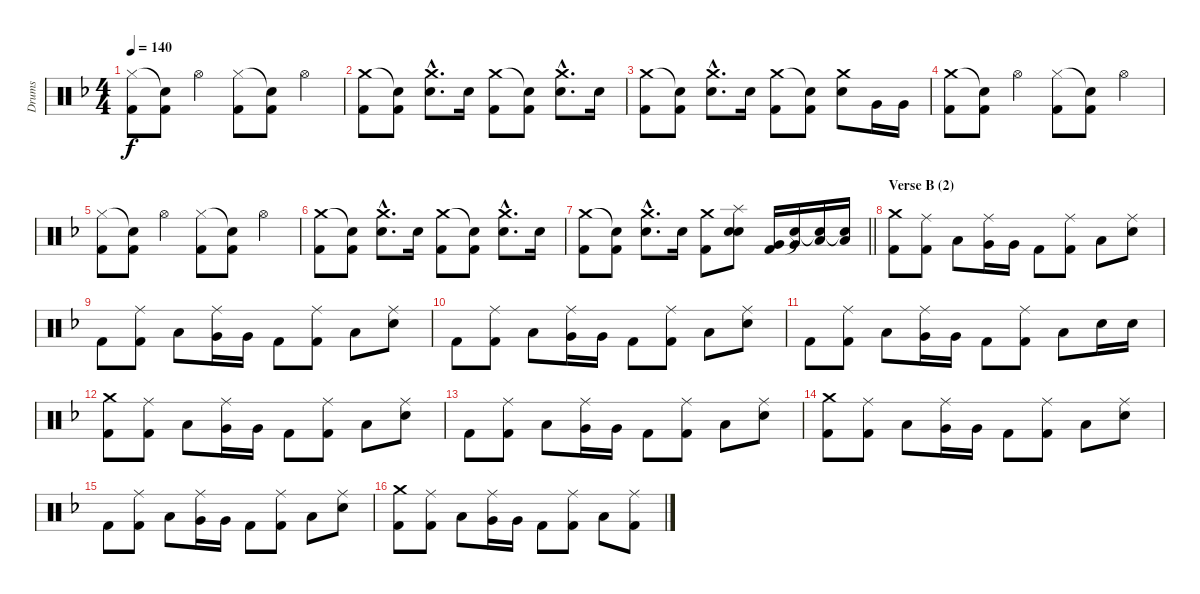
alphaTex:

\track ("Drums" "Drums") {instrument percussion}
\staff {score}
\articulation defaults
\ts (4 4)
\tempo 140
\clef neutral
\ks f
("Hi-Hat (closed)" "Kick (hit) 2").8{dy f} ("Snare (hit)"{t} "Kick (hit) 2").8 "Hi-Hat (open)".4 ("Hi-Hat (closed)" "Kick (hit) 2").8 ("Snare (hit)"{t} "Kick (hit) 2").8 "Hi-Hat (open)".4 |
("Crash medium (hit)" "Kick (hit) 2").8 ("Snare (hit)"{t} "Kick (hit) 2").8 ("Crash medium (hit)"{hac} "Electric Snare (hit)"{hac}).8{d} "Electric Snare (hit)".16 ("Crash medium (hit)" "Kick (hit) 2").8 ("Snare (hit)"{t} "Kick (hit) 2").8 ("Crash medium (hit)"{hac} "Electric Snare (hit)"{hac}).8{d} "Electric Snare (hit)".16 |
("Crash medium (hit)" "Kick (hit) 2").8 ("Snare (hit)"{t} "Kick (hit) 2").8 ("Crash medium (hit)"{hac} "Electric Snare (hit)"{hac}).8{d} "Electric Snare (hit)".16 ("Crash medium (hit)" "Kick (hit) 2").8 ("Snare (hit)"{t} "Kick (hit) 2").8 ("Crash medium (hit)" "Electric Snare (hit)").8 "Very Low Tom (hit)".16 "Very Low Tom (hit)".16 |
("Crash medium (hit)" "Kick (hit) 2").8 ("Snare (hit)"{t} "Kick (hit) 2").8 "Hi-Hat (open)".4 ("Hi-Hat (closed)" "Kick (hit) 2").8 ("Snare (hit)"{t} "Kick (hit) 2").8 "Hi-Hat (open)".4 |
("Hi-Hat (closed)" "Kick (hit) 2").8 ("Snare (hit)"{t} "Kick (hit) 2").8 "Hi-Hat (open)".4 ("Hi-Hat (closed)" "Kick (hit) 2").8 ("Snare (hit)"{t} "Kick (hit) 2").8 "Hi-Hat (open)".4 |
("Crash medium (hit)" "Kick (hit) 2").8 ("Snare (hit)"{t} "Kick (hit) 2").8 ("Crash medium (hit)"{hac} "Electric Snare (hit)"{hac}).8{d} "Electric Snare (hit)".16 ("Crash medium (hit)" "Kick (hit) 2").8 ("Snare (hit)"{t} "Kick (hit) 2").8 ("Crash medium (hit)"{hac} "Electric Snare (hit)"{hac}).8{d} "Electric Snare (hit)".16 |
\barLineRight lightlight
("Crash medium (hit)" "Kick (hit) 2").8 ("Snare (hit)"{t} "Kick (hit) 2").8 ("Crash medium (hit)"{hac} "Electric Snare (hit)"{hac}).8{d} "Electric Snare (hit)".16 ("Crash medium (hit)" "Kick (hit) 2").8 ("Splash (hit)" "Electric Snare (hit)" "Snare (hit)").8 ("Very Low Tom (hit)" "Kick (hit) 2").16 ("Very Low Tom (hit)" "Snare (hit)"{t}).16 ("Low Floor Tom (hit)" "Snare (hit)"{t}).16 ("Low Floor Tom (hit)" "Snare (hit)"{t}).16 |
\section ("" "Verse B (2)")
("Crash medium (hit)" "Kick (hit) 2").8 ("Ride (middle)" "Kick (hit) 2").8 "Low Tom (hit)".8 ("Ride (middle)" "Very Low Tom (hit)").16 "Very Low Tom (hit)".16 "Kick (hit) 2".8 ("Ride (middle)" "Kick (hit) 2").8 "Low Floor Tom (hit)".8 ("Ride (middle)" "Electric Snare (hit)").8 |
"Kick (hit) 2".8 ("Ride (middle)" "Kick (hit) 2").8 "Low Tom (hit)".8 ("Ride (middle)" "Very Low Tom (hit)").16 "Very Low Tom (hit)".16 "Kick (hit) 2".8 ("Ride (middle)" "Kick (hit) 2").8 "Low Floor Tom (hit)".8 ("Ride (middle)" "Electric Snare (hit)").8 |
"Kick (hit) 2".8 ("Ride (middle)" "Kick (hit) 2").8 "Low Tom (hit)".8 ("Ride (middle)" "Very Low Tom (hit)").16 "Very Low Tom (hit)".16 "Kick (hit) 2".8 ("Ride (middle)" "Kick (hit) 2").8 "Low Floor Tom (hit)".8 ("Ride (middle)" "Electric Snare (hit)").8 |
"Kick (hit) 2".8 ("Ride (middle)" "Kick (hit) 2").8 "Low Tom (hit)".8 ("Ride (middle)" "Very Low Tom (hit)").16 "Very Low Tom (hit)".16 "Kick (hit) 2".8 ("Ride (middle)" "Kick (hit) 2").8 "Low Floor Tom (hit)".8 "Electric Snare (hit)".16 "Electric Snare (hit)".16 |
("Crash medium (hit)" "Kick (hit) 2").8 ("Ride (middle)" "Kick (hit) 2").8 "Low Tom (hit)".8 ("Ride (middle)" "Very Low Tom (hit)").16 "Very Low Tom (hit)".16 "Kick (hit) 2".8 ("Ride (middle)" "Kick (hit) 2").8 "Low Floor Tom (hit)".8 ("Ride (middle)" "Electric Snare (hit)").8 |
"Kick (hit) 2".8 ("Ride (middle)" "Kick (hit) 2").8 "Low Tom (hit)".8 ("Ride (middle)" "Very Low Tom (hit)").16 "Very Low Tom (hit)".16 "Kick (hit) 2".8 ("Ride (middle)" "Kick (hit) 2").8 "Low Floor Tom (hit)".8 ("Ride (middle)" "Electric Snare (hit)").8 |
("Crash medium (hit)" "Kick (hit) 2").8 ("Ride (middle)" "Kick (hit) 2").8 "Low Tom (hit)".8 ("Ride (middle)" "Very Low Tom (hit)").16 "Very Low Tom (hit)".16 "Kick (hit) 2".8 ("Ride (middle)" "Kick (hit) 2").8 "Low Floor Tom (hit)".8 ("Ride (middle)" "Electric Snare (hit)").8 |
"Kick (hit) 2".8 ("Ride (middle)" "Kick (hit) 2").8 "Low Tom (hit)".8 ("Ride (middle)" "Very Low Tom (hit)").16 "Very Low Tom (hit)".16 "Kick (hit) 2".8 ("Ride (middle)" "Kick (hit) 2").8 "Low Floor Tom (hit)".8 ("Ride (middle)" "Electric Snare (hit)").8 |
("Crash medium (hit)" "Kick (hit) 2").8 ("Ride (middle)" "Kick (hit) 2").8 "Low Tom (hit)".8 ("Ride (middle)" "Very Low Tom (hit)").16 "Very Low Tom (hit)".16 "Kick (hit) 2".8 ("Ride (middle)" "Kick (hit) 2").8 "Low Floor Tom (hit)".8 ("Ride (middle)" "Kick (hit) 2").8
